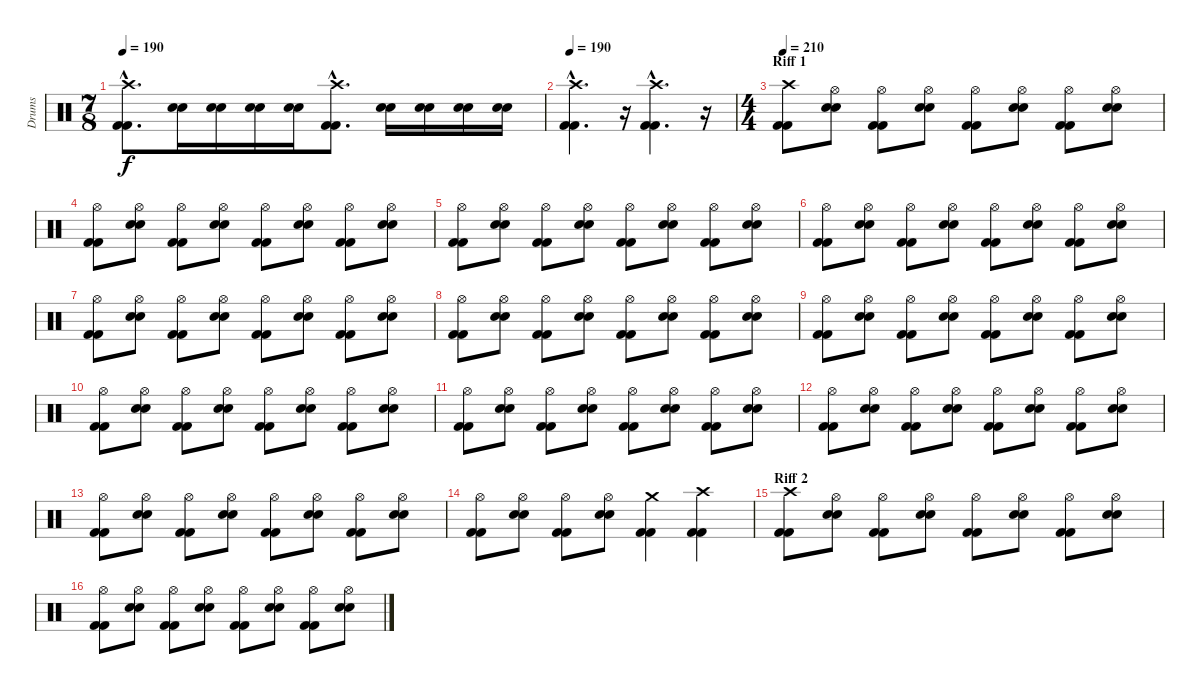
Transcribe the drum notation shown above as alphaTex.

\track ("Drums" "Drums") {instrument percussion}
\staff {score}
\articulation defaults
\ts (7 8)
\tempo 190
\clef neutral
\ks c
("Crash high (hit)"{hac} "Kick (hit) 2"{hac} "Kick (hit) 2"{hac}).8{d dy f} ("Snare (hit) 2" "Snare (hit) 2").16 ("Snare (hit) 2" "Snare (hit) 2").16 ("Snare (hit) 2" "Snare (hit) 2").16 ("Snare (hit) 2" "Snare (hit) 2").16 ("Crash high (hit)"{hac} "Kick (hit) 2"{hac} "Kick (hit) 2"{hac}).8{d} ("Snare (hit) 2" "Snare (hit) 2").16 ("Snare (hit) 2" "Snare (hit) 2").16 ("Snare (hit) 2" "Snare (hit) 2").16 ("Snare (hit) 2" "Snare (hit) 2").16 |
\tempo 190
("Crash high (hit)"{hac} "Kick (hit) 2"{hac} "Kick (hit) 2"{hac}).4{d} r.16 ("Crash high (hit)"{hac} "Kick (hit) 2"{hac} "Kick (hit) 2"{hac}).4{d} r.16 |
\ts (4 4)
\section ("" "Riff 1")
\tempo 210
("Crash high (hit)" "Kick (hit) 2" "Kick (hit) 2").8 ("Hi-Hat (open)" "Snare (hit) 2" "Snare (hit) 2").8 ("Hi-Hat (open)" "Kick (hit) 2" "Kick (hit) 2").8 ("Hi-Hat (open)" "Snare (hit) 2" "Snare (hit) 2").8 ("Hi-Hat (open)" "Kick (hit) 2" "Kick (hit) 2").8 ("Hi-Hat (open)" "Snare (hit) 2" "Snare (hit) 2").8 ("Hi-Hat (open)" "Kick (hit) 2" "Kick (hit) 2").8 ("Hi-Hat (open)" "Snare (hit) 2" "Snare (hit) 2").8 |
("Hi-Hat (open)" "Kick (hit) 2" "Kick (hit) 2").8 ("Hi-Hat (open)" "Snare (hit) 2" "Snare (hit) 2").8 ("Hi-Hat (open)" "Kick (hit) 2" "Kick (hit) 2").8 ("Hi-Hat (open)" "Snare (hit) 2" "Snare (hit) 2").8 ("Hi-Hat (open)" "Kick (hit) 2" "Kick (hit) 2").8 ("Hi-Hat (open)" "Snare (hit) 2" "Snare (hit) 2").8 ("Hi-Hat (open)" "Kick (hit) 2" "Kick (hit) 2").8 ("Hi-Hat (open)" "Snare (hit) 2" "Snare (hit) 2").8 |
("Hi-Hat (open)" "Kick (hit) 2" "Kick (hit) 2").8 ("Hi-Hat (open)" "Snare (hit) 2" "Snare (hit) 2").8 ("Hi-Hat (open)" "Kick (hit) 2" "Kick (hit) 2").8 ("Hi-Hat (open)" "Snare (hit) 2" "Snare (hit) 2").8 ("Hi-Hat (open)" "Kick (hit) 2" "Kick (hit) 2").8 ("Hi-Hat (open)" "Snare (hit) 2" "Snare (hit) 2").8 ("Hi-Hat (open)" "Kick (hit) 2" "Kick (hit) 2").8 ("Hi-Hat (open)" "Snare (hit) 2" "Snare (hit) 2").8 |
("Hi-Hat (open)" "Kick (hit) 2" "Kick (hit) 2").8 ("Hi-Hat (open)" "Snare (hit) 2" "Snare (hit) 2").8 ("Hi-Hat (open)" "Kick (hit) 2" "Kick (hit) 2").8 ("Hi-Hat (open)" "Snare (hit) 2" "Snare (hit) 2").8 ("Hi-Hat (open)" "Kick (hit) 2" "Kick (hit) 2").8 ("Hi-Hat (open)" "Snare (hit) 2" "Snare (hit) 2").8 ("Hi-Hat (open)" "Kick (hit) 2" "Kick (hit) 2").8 ("Hi-Hat (open)" "Snare (hit) 2" "Snare (hit) 2").8 |
("Hi-Hat (open)" "Kick (hit) 2" "Kick (hit) 2").8 ("Hi-Hat (open)" "Snare (hit) 2" "Snare (hit) 2").8 ("Hi-Hat (open)" "Kick (hit) 2" "Kick (hit) 2").8 ("Hi-Hat (open)" "Snare (hit) 2" "Snare (hit) 2").8 ("Hi-Hat (open)" "Kick (hit) 2" "Kick (hit) 2").8 ("Hi-Hat (open)" "Snare (hit) 2" "Snare (hit) 2").8 ("Hi-Hat (open)" "Kick (hit) 2" "Kick (hit) 2").8 ("Hi-Hat (open)" "Snare (hit) 2" "Snare (hit) 2").8 |
("Hi-Hat (open)" "Kick (hit) 2" "Kick (hit) 2").8 ("Hi-Hat (open)" "Snare (hit) 2" "Snare (hit) 2").8 ("Hi-Hat (open)" "Kick (hit) 2" "Kick (hit) 2").8 ("Hi-Hat (open)" "Snare (hit) 2" "Snare (hit) 2").8 ("Hi-Hat (open)" "Kick (hit) 2" "Kick (hit) 2").8 ("Hi-Hat (open)" "Snare (hit) 2" "Snare (hit) 2").8 ("Hi-Hat (open)" "Kick (hit) 2" "Kick (hit) 2").8 ("Hi-Hat (open)" "Snare (hit) 2" "Snare (hit) 2").8 |
("Hi-Hat (open)" "Kick (hit) 2" "Kick (hit) 2").8 ("Hi-Hat (open)" "Snare (hit) 2" "Snare (hit) 2").8 ("Hi-Hat (open)" "Kick (hit) 2" "Kick (hit) 2").8 ("Hi-Hat (open)" "Snare (hit) 2" "Snare (hit) 2").8 ("Hi-Hat (open)" "Kick (hit) 2" "Kick (hit) 2").8 ("Hi-Hat (open)" "Snare (hit) 2" "Snare (hit) 2").8 ("Hi-Hat (open)" "Kick (hit) 2" "Kick (hit) 2").8 ("Hi-Hat (open)" "Snare (hit) 2" "Snare (hit) 2").8 |
("Hi-Hat (open)" "Kick (hit) 2" "Kick (hit) 2").8 ("Hi-Hat (open)" "Snare (hit) 2" "Snare (hit) 2").8 ("Hi-Hat (open)" "Kick (hit) 2" "Kick (hit) 2").8 ("Hi-Hat (open)" "Snare (hit) 2" "Snare (hit) 2").8 ("Hi-Hat (open)" "Kick (hit) 2" "Kick (hit) 2").8 ("Hi-Hat (open)" "Snare (hit) 2" "Snare (hit) 2").8 ("Hi-Hat (open)" "Kick (hit) 2" "Kick (hit) 2").8 ("Hi-Hat (open)" "Snare (hit) 2" "Snare (hit) 2").8 |
("Hi-Hat (open)" "Kick (hit) 2" "Kick (hit) 2").8 ("Hi-Hat (open)" "Snare (hit) 2" "Snare (hit) 2").8 ("Hi-Hat (open)" "Kick (hit) 2" "Kick (hit) 2").8 ("Hi-Hat (open)" "Snare (hit) 2" "Snare (hit) 2").8 ("Hi-Hat (open)" "Kick (hit) 2" "Kick (hit) 2").8 ("Hi-Hat (open)" "Snare (hit) 2" "Snare (hit) 2").8 ("Hi-Hat (open)" "Kick (hit) 2" "Kick (hit) 2").8 ("Hi-Hat (open)" "Snare (hit) 2" "Snare (hit) 2").8 |
("Hi-Hat (open)" "Kick (hit) 2" "Kick (hit) 2").8 ("Hi-Hat (open)" "Snare (hit) 2" "Snare (hit) 2").8 ("Hi-Hat (open)" "Kick (hit) 2" "Kick (hit) 2").8 ("Hi-Hat (open)" "Snare (hit) 2" "Snare (hit) 2").8 ("Hi-Hat (open)" "Kick (hit) 2" "Kick (hit) 2").8 ("Hi-Hat (open)" "Snare (hit) 2" "Snare (hit) 2").8 ("Hi-Hat (open)" "Kick (hit) 2" "Kick (hit) 2").8 ("Hi-Hat (open)" "Snare (hit) 2" "Snare (hit) 2").8 |
("Hi-Hat (open)" "Kick (hit) 2" "Kick (hit) 2").8 ("Hi-Hat (open)" "Snare (hit) 2" "Snare (hit) 2").8 ("Hi-Hat (open)" "Kick (hit) 2" "Kick (hit) 2").8 ("Hi-Hat (open)" "Snare (hit) 2" "Snare (hit) 2").8 ("Hi-Hat (open)" "Kick (hit) 2" "Kick (hit) 2").8 ("Hi-Hat (open)" "Snare (hit) 2" "Snare (hit) 2").8 ("Hi-Hat (open)" "Kick (hit) 2" "Kick (hit) 2").8 ("Hi-Hat (open)" "Snare (hit) 2" "Snare (hit) 2").8 |
("Hi-Hat (open)" "Kick (hit) 2" "Kick (hit) 2").8 ("Hi-Hat (open)" "Snare (hit) 2" "Snare (hit) 2").8 ("Hi-Hat (open)" "Kick (hit) 2" "Kick (hit) 2").8 ("Hi-Hat (open)" "Snare (hit) 2" "Snare (hit) 2").8 ("Crash medium (hit)" "Kick (hit) 2" "Kick (hit) 2").4 ("Crash high (hit)" "Kick (hit) 2" "Kick (hit) 2").4 |
\section ("" "Riff 2")
("Crash high (hit)" "Kick (hit) 2" "Kick (hit) 2").8 ("Hi-Hat (open)" "Snare (hit) 2" "Snare (hit) 2").8 ("Hi-Hat (open)" "Kick (hit) 2" "Kick (hit) 2").8 ("Hi-Hat (open)" "Snare (hit) 2" "Snare (hit) 2").8 ("Hi-Hat (open)" "Kick (hit) 2" "Kick (hit) 2").8 ("Hi-Hat (open)" "Snare (hit) 2" "Snare (hit) 2").8 ("Hi-Hat (open)" "Kick (hit) 2" "Kick (hit) 2").8 ("Hi-Hat (open)" "Snare (hit) 2" "Snare (hit) 2").8 |
("Hi-Hat (open)" "Kick (hit) 2" "Kick (hit) 2").8 ("Hi-Hat (open)" "Snare (hit) 2" "Snare (hit) 2").8 ("Hi-Hat (open)" "Kick (hit) 2" "Kick (hit) 2").8 ("Hi-Hat (open)" "Snare (hit) 2" "Snare (hit) 2").8 ("Hi-Hat (open)" "Kick (hit) 2" "Kick (hit) 2").8 ("Hi-Hat (open)" "Snare (hit) 2" "Snare (hit) 2").8 ("Hi-Hat (open)" "Kick (hit) 2" "Kick (hit) 2").8 ("Hi-Hat (open)" "Snare (hit) 2" "Snare (hit) 2").8
